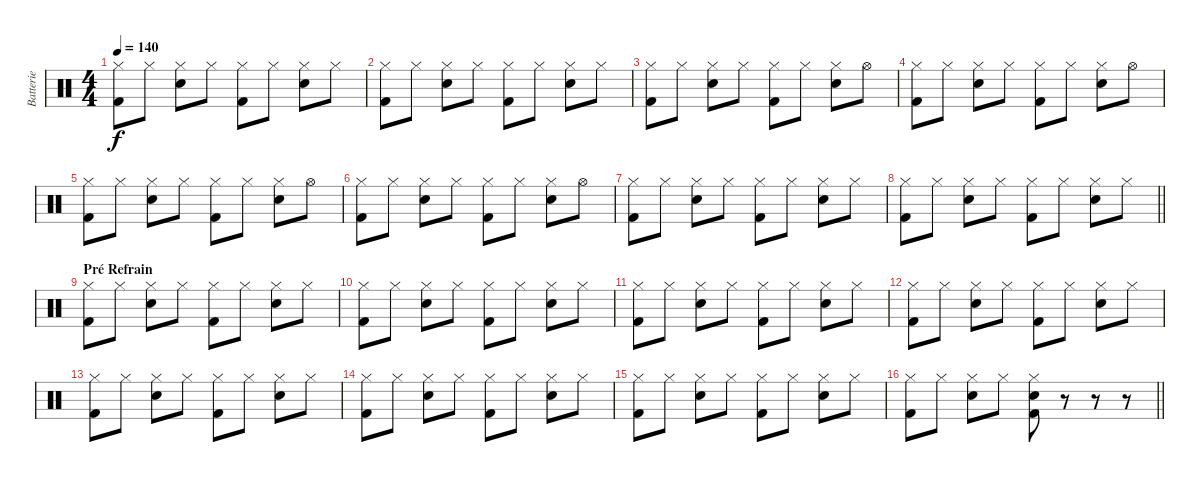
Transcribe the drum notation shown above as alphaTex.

\track ("Batterie" "Batterie") {instrument percussion}
\staff {score}
\articulation defaults
\ts (4 4)
\tempo 140
\clef neutral
\ks c
("Hi-Hat (closed)" "Kick (hit) 2").8{dy f} "Hi-Hat (closed)".8 ("Hi-Hat (closed)" "Electric Snare (hit)").8 "Hi-Hat (closed)".8 ("Hi-Hat (closed)" "Kick (hit) 2").8 "Hi-Hat (closed)".8 ("Hi-Hat (closed)" "Electric Snare (hit)").8 "Hi-Hat (closed)".8 |
("Hi-Hat (closed)" "Kick (hit) 2").8 "Hi-Hat (closed)".8 ("Hi-Hat (closed)" "Electric Snare (hit)").8 "Hi-Hat (closed)".8 ("Hi-Hat (closed)" "Kick (hit) 2").8 "Hi-Hat (closed)".8 ("Hi-Hat (closed)" "Electric Snare (hit)").8 "Hi-Hat (closed)".8 |
("Hi-Hat (closed)" "Kick (hit) 2").8 "Hi-Hat (closed)".8 ("Hi-Hat (closed)" "Electric Snare (hit)").8 "Hi-Hat (closed)".8 ("Hi-Hat (closed)" "Kick (hit) 2").8 "Hi-Hat (closed)".8 ("Hi-Hat (closed)" "Electric Snare (hit)").8 "Hi-Hat (open)".8 |
("Hi-Hat (closed)" "Kick (hit) 2").8 "Hi-Hat (closed)".8 ("Hi-Hat (closed)" "Electric Snare (hit)").8 "Hi-Hat (closed)".8 ("Hi-Hat (closed)" "Kick (hit) 2").8 "Hi-Hat (closed)".8 ("Hi-Hat (closed)" "Electric Snare (hit)").8 "Hi-Hat (open)".8 |
("Hi-Hat (closed)" "Kick (hit) 2").8 "Hi-Hat (closed)".8 ("Hi-Hat (closed)" "Electric Snare (hit)").8 "Hi-Hat (closed)".8 ("Hi-Hat (closed)" "Kick (hit) 2").8 "Hi-Hat (closed)".8 ("Hi-Hat (closed)" "Electric Snare (hit)").8 "Hi-Hat (open)".8 |
("Hi-Hat (closed)" "Kick (hit) 2").8 "Hi-Hat (closed)".8 ("Hi-Hat (closed)" "Electric Snare (hit)").8 "Hi-Hat (closed)".8 ("Hi-Hat (closed)" "Kick (hit) 2").8 "Hi-Hat (closed)".8 ("Hi-Hat (closed)" "Electric Snare (hit)").8 "Hi-Hat (open)".8 |
("Hi-Hat (closed)" "Kick (hit) 2").8 "Hi-Hat (closed)".8 ("Hi-Hat (closed)" "Electric Snare (hit)").8 "Hi-Hat (closed)".8 ("Hi-Hat (closed)" "Kick (hit) 2").8 "Hi-Hat (closed)".8 ("Hi-Hat (closed)" "Electric Snare (hit)").8 "Hi-Hat (closed)".8 |
\barLineRight lightlight
("Hi-Hat (closed)" "Kick (hit) 2").8 "Hi-Hat (closed)".8 ("Hi-Hat (closed)" "Electric Snare (hit)").8 "Hi-Hat (closed)".8 ("Hi-Hat (closed)" "Kick (hit) 2").8 "Hi-Hat (closed)".8 ("Hi-Hat (closed)" "Electric Snare (hit)").8 "Hi-Hat (closed)".8 |
\section ("" "Pré Refrain")
("Hi-Hat (closed)" "Kick (hit) 2").8 "Hi-Hat (closed)".8 ("Hi-Hat (closed)" "Electric Snare (hit)").8 "Hi-Hat (closed)".8 ("Hi-Hat (closed)" "Kick (hit) 2").8 "Hi-Hat (closed)".8 ("Hi-Hat (closed)" "Electric Snare (hit)").8 "Hi-Hat (closed)".8 |
("Hi-Hat (closed)" "Kick (hit) 2").8 "Hi-Hat (closed)".8 ("Hi-Hat (closed)" "Electric Snare (hit)").8 "Hi-Hat (closed)".8 ("Hi-Hat (closed)" "Kick (hit) 2").8 "Hi-Hat (closed)".8 ("Hi-Hat (closed)" "Electric Snare (hit)").8 "Hi-Hat (closed)".8 |
("Hi-Hat (closed)" "Kick (hit) 2").8 "Hi-Hat (closed)".8 ("Hi-Hat (closed)" "Electric Snare (hit)").8 "Hi-Hat (closed)".8 ("Hi-Hat (closed)" "Kick (hit) 2").8 "Hi-Hat (closed)".8 ("Hi-Hat (closed)" "Electric Snare (hit)").8 "Hi-Hat (closed)".8 |
("Hi-Hat (closed)" "Kick (hit) 2").8 "Hi-Hat (closed)".8 ("Hi-Hat (closed)" "Electric Snare (hit)").8 "Hi-Hat (closed)".8 ("Hi-Hat (closed)" "Kick (hit) 2").8 "Hi-Hat (closed)".8 ("Hi-Hat (closed)" "Electric Snare (hit)").8 "Hi-Hat (closed)".8 |
("Hi-Hat (closed)" "Kick (hit) 2").8 "Hi-Hat (closed)".8 ("Hi-Hat (closed)" "Electric Snare (hit)").8 "Hi-Hat (closed)".8 ("Hi-Hat (closed)" "Kick (hit) 2").8 "Hi-Hat (closed)".8 ("Hi-Hat (closed)" "Electric Snare (hit)").8 "Hi-Hat (closed)".8 |
("Hi-Hat (closed)" "Kick (hit) 2").8 "Hi-Hat (closed)".8 ("Hi-Hat (closed)" "Electric Snare (hit)").8 "Hi-Hat (closed)".8 ("Hi-Hat (closed)" "Kick (hit) 2").8 "Hi-Hat (closed)".8 ("Hi-Hat (closed)" "Electric Snare (hit)").8 "Hi-Hat (closed)".8 |
("Hi-Hat (closed)" "Kick (hit) 2").8 "Hi-Hat (closed)".8 ("Hi-Hat (closed)" "Electric Snare (hit)").8 "Hi-Hat (closed)".8 ("Hi-Hat (closed)" "Kick (hit) 2").8 "Hi-Hat (closed)".8 ("Hi-Hat (closed)" "Electric Snare (hit)").8 "Hi-Hat (closed)".8 |
\barLineRight lightlight
("Hi-Hat (closed)" "Kick (hit) 2").8 "Hi-Hat (closed)".8 ("Hi-Hat (closed)" "Electric Snare (hit)").8 "Hi-Hat (closed)".8 ("Hi-Hat (closed)" "Electric Snare (hit)" "Kick (hit) 2").8 r.8 r.8 r.8
